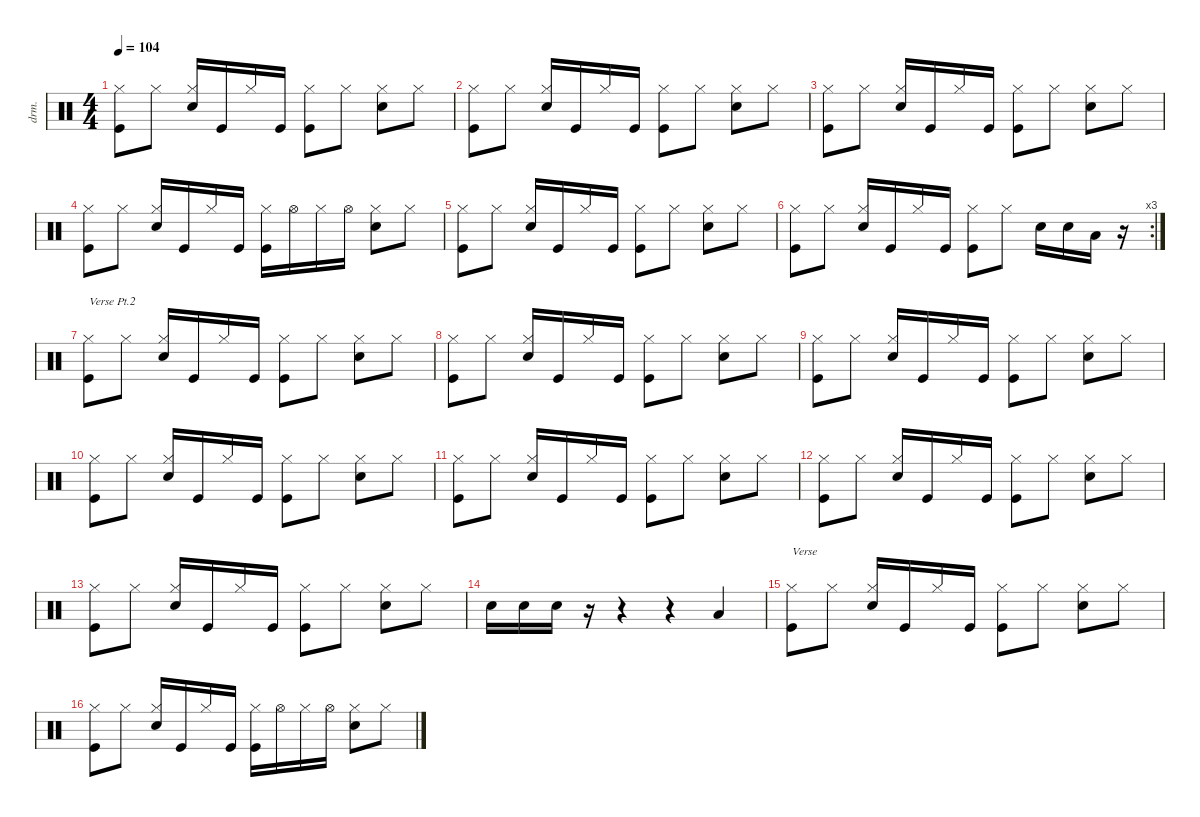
\defaultSystemsLayout 4
\hideDynamics
\bracketExtendMode nobrackets
\otherSystemsTrackNameOrientation horizontal
\track ("Drumkit" "drm.") {instrument percussion}
\staff {score}
\articulation defaults
\ts (4 4)
\tempo 104
\clef neutral
\ks c
("Kick (hit)" "Hi-Hat (closed)").8{dy mf beam Down} "Hi-Hat (closed)".8{beam Down} ("Hi-Hat (closed)" "Snare (hit) 2").16{beam Up} "Kick (hit)".16{beam Up} "Hi-Hat (closed)".16{beam Up} "Kick (hit)".16{beam Up} ("Hi-Hat (closed)" "Kick (hit)").8{beam Down} "Hi-Hat (closed)".8{beam Down} ("Hi-Hat (closed)" "Snare (hit) 2").8{beam Down} "Hi-Hat (closed)".8{beam Down} |
("Kick (hit)" "Hi-Hat (closed)").8{beam Down} "Hi-Hat (closed)".8{beam Down} ("Hi-Hat (closed)" "Snare (hit) 2").16{beam Up} "Kick (hit)".16{beam Up} "Hi-Hat (closed)".16{beam Up} "Kick (hit)".16{beam Up} ("Hi-Hat (closed)" "Kick (hit)").8{beam Down} "Hi-Hat (closed)".8{beam Down} ("Hi-Hat (closed)" "Snare (hit) 2").8{beam Down} "Hi-Hat (closed)".8{beam Down} |
("Kick (hit)" "Hi-Hat (closed)").8{beam Down} "Hi-Hat (closed)".8{beam Down} ("Hi-Hat (closed)" "Snare (hit) 2").16{beam Up} "Kick (hit)".16{beam Up} "Hi-Hat (closed)".16{beam Up} "Kick (hit)".16{beam Up} ("Hi-Hat (closed)" "Kick (hit)").8{beam Down} "Hi-Hat (closed)".8{beam Down} ("Hi-Hat (closed)" "Snare (hit) 2").8{beam Down} "Hi-Hat (closed)".8{beam Down} |
("Kick (hit)" "Hi-Hat (closed)").8{beam Down} "Hi-Hat (closed)".8{beam Down} ("Hi-Hat (closed)" "Snare (hit) 2").16{beam Up} "Kick (hit)".16{beam Up} "Hi-Hat (closed)".16{beam Up} "Kick (hit)".16{beam Up} ("Kick (hit)" "Hi-Hat (closed)").16{beam Down} "Hi-Hat (open)".16{beam Down} "Hi-Hat (closed)".16{beam Down} "Hi-Hat (open)".16{beam Down} ("Snare (hit) 2" "Hi-Hat (closed)").8{beam Down} "Hi-Hat (closed)".8{beam Down} |
("Kick (hit)" "Hi-Hat (closed)").8{beam Down} "Hi-Hat (closed)".8{beam Down} ("Hi-Hat (closed)" "Snare (hit) 2").16{beam Up} "Kick (hit)".16{beam Up} "Hi-Hat (closed)".16{beam Up} "Kick (hit)".16{beam Up} ("Hi-Hat (closed)" "Kick (hit)").8{beam Down} "Hi-Hat (closed)".8{beam Down} ("Hi-Hat (closed)" "Snare (hit) 2").8{beam Down} "Hi-Hat (closed)".8{beam Down} |
\rc 3
("Kick (hit)" "Hi-Hat (closed)").8{beam Down} "Hi-Hat (closed)".8{beam Down} ("Hi-Hat (closed)" "Snare (hit) 2").16{beam Up} "Kick (hit)".16{beam Up} "Hi-Hat (closed)".16{beam Up} "Kick (hit)".16{beam Up} ("Hi-Hat (closed)" "Kick (hit)").8{beam Down} "Hi-Hat (closed)".8{beam Down} "Snare (hit) 2".16{beam Down} "Snare (hit) 2".16{beam Down} "Low Tom (hit)".16{beam Down} r.16{beam Down} |
("Kick (hit)" "Hi-Hat (closed)").8{txt "Verse Pt.2" beam Down} "Hi-Hat (closed)".8{beam Down} ("Hi-Hat (closed)" "Snare (hit) 2").16{beam Up} "Kick (hit)".16{beam Up} "Hi-Hat (closed)".16{beam Up} "Kick (hit)".16{beam Up} ("Hi-Hat (closed)" "Kick (hit)").8{beam Down} "Hi-Hat (closed)".8{beam Down} ("Hi-Hat (closed)" "Snare (hit) 2").8{beam Down} "Hi-Hat (closed)".8{beam Down} |
("Kick (hit)" "Hi-Hat (closed)").8{beam Down} "Hi-Hat (closed)".8{beam Down} ("Hi-Hat (closed)" "Snare (hit) 2").16{beam Up} "Kick (hit)".16{beam Up} "Hi-Hat (closed)".16{beam Up} "Kick (hit)".16{beam Up} ("Hi-Hat (closed)" "Kick (hit)").8{beam Down} "Hi-Hat (closed)".8{beam Down} ("Hi-Hat (closed)" "Snare (hit) 2").8{beam Down} "Hi-Hat (closed)".8{beam Down} |
("Kick (hit)" "Hi-Hat (closed)").8{beam Down} "Hi-Hat (closed)".8{beam Down} ("Hi-Hat (closed)" "Snare (hit) 2").16{beam Up} "Kick (hit)".16{beam Up} "Hi-Hat (closed)".16{beam Up} "Kick (hit)".16{beam Up} ("Hi-Hat (closed)" "Kick (hit)").8{beam Down} "Hi-Hat (closed)".8{beam Down} ("Hi-Hat (closed)" "Snare (hit) 2").8{beam Down} "Hi-Hat (closed)".8{beam Down} |
("Kick (hit)" "Hi-Hat (closed)").8{beam Down} "Hi-Hat (closed)".8{beam Down} ("Hi-Hat (closed)" "Snare (hit) 2").16{beam Up} "Kick (hit)".16{beam Up} "Hi-Hat (closed)".16{beam Up} "Kick (hit)".16{beam Up} ("Hi-Hat (closed)" "Kick (hit)").8{beam Down} "Hi-Hat (closed)".8{beam Down} ("Hi-Hat (closed)" "Snare (hit) 2").8{beam Down} "Hi-Hat (closed)".8{beam Down} |
("Kick (hit)" "Hi-Hat (closed)").8{beam Down} "Hi-Hat (closed)".8{beam Down} ("Hi-Hat (closed)" "Snare (hit) 2").16{beam Up} "Kick (hit)".16{beam Up} "Hi-Hat (closed)".16{beam Up} "Kick (hit)".16{beam Up} ("Hi-Hat (closed)" "Kick (hit)").8{beam Down} "Hi-Hat (closed)".8{beam Down} ("Hi-Hat (closed)" "Snare (hit) 2").8{beam Down} "Hi-Hat (closed)".8{beam Down} |
("Kick (hit)" "Hi-Hat (closed)").8{beam Down} "Hi-Hat (closed)".8{beam Down} ("Hi-Hat (closed)" "Snare (hit) 2").16{beam Up} "Kick (hit)".16{beam Up} "Hi-Hat (closed)".16{beam Up} "Kick (hit)".16{beam Up} ("Hi-Hat (closed)" "Kick (hit)").8{beam Down} "Hi-Hat (closed)".8{beam Down} ("Hi-Hat (closed)" "Snare (hit) 2").8{beam Down} "Hi-Hat (closed)".8{beam Down} |
("Kick (hit)" "Hi-Hat (closed)").8{beam Down} "Hi-Hat (closed)".8{beam Down} ("Hi-Hat (closed)" "Snare (hit) 2").16{beam Up} "Kick (hit)".16{beam Up} "Hi-Hat (closed)".16{beam Up} "Kick (hit)".16{beam Up} ("Hi-Hat (closed)" "Kick (hit)").8{beam Down} "Hi-Hat (closed)".8{beam Down} ("Hi-Hat (closed)" "Snare (hit) 2").8{beam Down} "Hi-Hat (closed)".8{beam Down} |
"Snare (hit) 2".16{beam Down} "Snare (hit) 2".16{beam Down} "Snare (hit) 2".16{beam Down} r.16{beam Down} r.4{beam Down} r.4{beam Down} "Low Tom (hit)".4{beam Up} |
("Kick (hit)" "Hi-Hat (closed)").8{txt "Verse" beam Down} "Hi-Hat (closed)".8{beam Down} ("Hi-Hat (closed)" "Snare (hit) 2").16{beam Up} "Kick (hit)".16{beam Up} "Hi-Hat (closed)".16{beam Up} "Kick (hit)".16{beam Up} ("Hi-Hat (closed)" "Kick (hit)").8{beam Down} "Hi-Hat (closed)".8{beam Down} ("Hi-Hat (closed)" "Snare (hit) 2").8{beam Down} "Hi-Hat (closed)".8{beam Down} |
("Kick (hit)" "Hi-Hat (closed)").8{beam Down} "Hi-Hat (closed)".8{beam Down} ("Hi-Hat (closed)" "Snare (hit) 2").16{beam Up} "Kick (hit)".16{beam Up} "Hi-Hat (closed)".16{beam Up} "Kick (hit)".16{beam Up} ("Kick (hit)" "Hi-Hat (closed)").16{beam Down} "Hi-Hat (open)".16{beam Down} "Hi-Hat (closed)".16{beam Down} "Hi-Hat (open)".16{beam Down} ("Snare (hit) 2" "Hi-Hat (closed)").8{beam Down} "Hi-Hat (closed)".8{beam Down}
